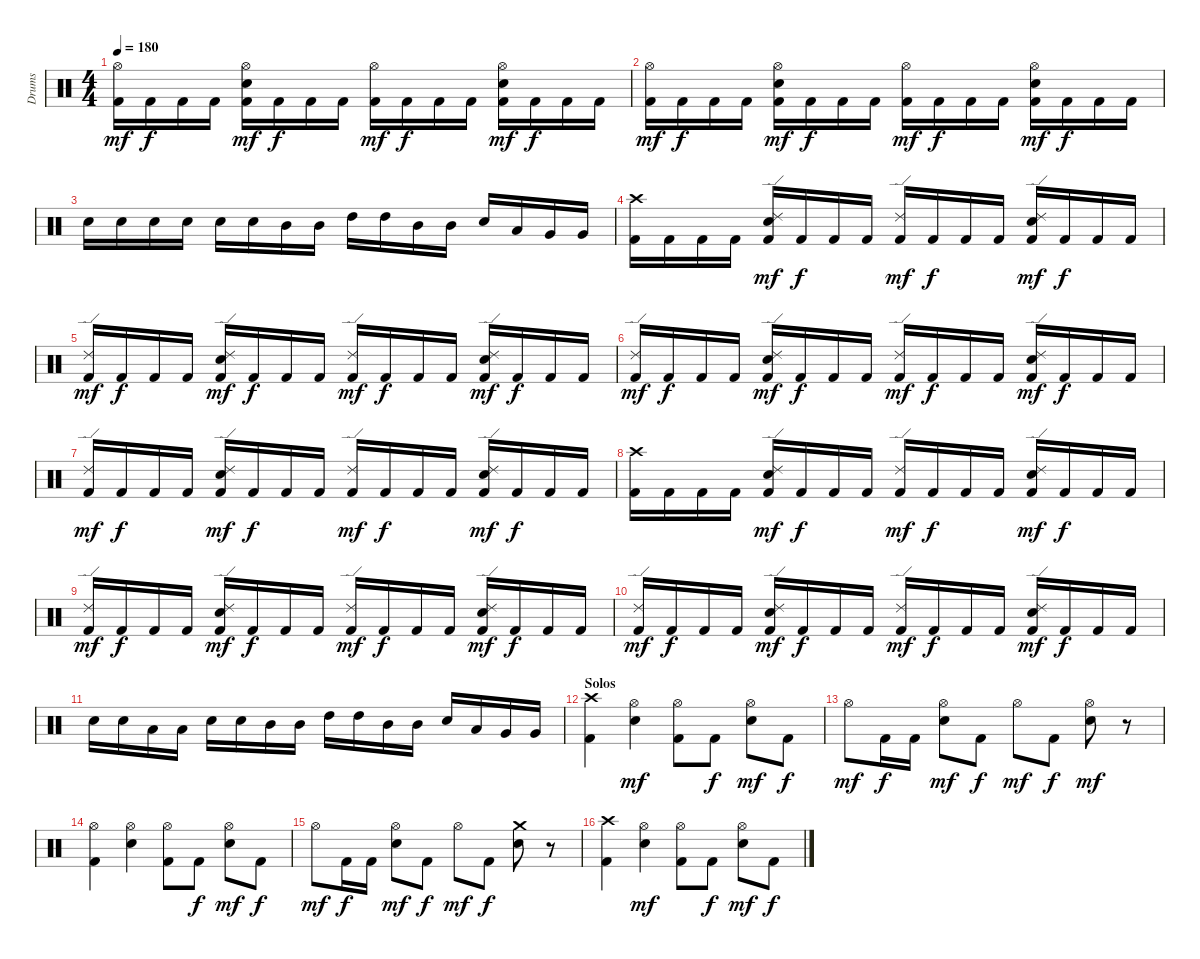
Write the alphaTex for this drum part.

\track ("Drums" "Drums") {instrument percussion}
\staff {score}
\articulation defaults
\ts (4 4)
\tempo 180
\clef neutral
\ks c
("Hi-Hat (open)" "Kick (hit) 2").16{dy mf} "Kick (hit) 2".16{dy f} "Kick (hit) 2".16 "Kick (hit) 2".16 ("Hi-Hat (open)" "Snare (hit) 2" "Kick (hit) 2").16{dy mf} "Kick (hit) 2".16{dy f} "Kick (hit) 2".16 "Kick (hit) 2".16 ("Hi-Hat (open)" "Kick (hit) 2").16{dy mf} "Kick (hit) 2".16{dy f} "Kick (hit) 2".16 "Kick (hit) 2".16 ("Hi-Hat (open)" "Snare (hit) 2" "Kick (hit) 2").16{dy mf} "Kick (hit) 2".16{dy f} "Kick (hit) 2".16 "Kick (hit) 2".16 |
("Hi-Hat (open)" "Kick (hit) 2").16{dy mf} "Kick (hit) 2".16{dy f} "Kick (hit) 2".16 "Kick (hit) 2".16 ("Hi-Hat (open)" "Snare (hit) 2" "Kick (hit) 2").16{dy mf} "Kick (hit) 2".16{dy f} "Kick (hit) 2".16 "Kick (hit) 2".16 ("Hi-Hat (open)" "Kick (hit) 2").16{dy mf} "Kick (hit) 2".16{dy f} "Kick (hit) 2".16 "Kick (hit) 2".16 ("Hi-Hat (open)" "Snare (hit) 2" "Kick (hit) 2").16{dy mf} "Kick (hit) 2".16{dy f} "Kick (hit) 2".16 "Kick (hit) 2".16 |
"Snare (hit) 2".16 "Snare (hit) 2".16 "Snare (hit) 2".16 "Snare (hit) 2".16 "Snare (hit) 2".16 "Snare (hit) 2".16 "Mid Tom (hit)".16 "Mid Tom (hit)".16 "High Tom (hit)".16 "High Tom (hit)".16 "Mid Tom (hit)".16 "Mid Tom (hit)".16 "Snare (hit) 2".16 "Low Tom (hit)".16 "Very Low Tom (hit)".16 "Very Low Tom (hit)".16 |
("Crash high (hit)" "Kick (hit) 2").16 "Kick (hit) 2".16 "Kick (hit) 2".16 "Kick (hit) 2".16 ("Ride (edge) 2" "Snare (hit) 2" "Kick (hit) 2").16{dy mf} "Kick (hit) 2".16{dy f} "Kick (hit) 2".16 "Kick (hit) 2".16 ("Ride (edge) 2" "Kick (hit) 2").16{dy mf} "Kick (hit) 2".16{dy f} "Kick (hit) 2".16 "Kick (hit) 2".16 ("Ride (edge) 2" "Snare (hit) 2" "Kick (hit) 2").16{dy mf} "Kick (hit) 2".16{dy f} "Kick (hit) 2".16 "Kick (hit) 2".16 |
("Ride (edge) 2" "Kick (hit) 2").16{dy mf} "Kick (hit) 2".16{dy f} "Kick (hit) 2".16 "Kick (hit) 2".16 ("Ride (edge) 2" "Snare (hit) 2" "Kick (hit) 2").16{dy mf} "Kick (hit) 2".16{dy f} "Kick (hit) 2".16 "Kick (hit) 2".16 ("Ride (edge) 2" "Kick (hit) 2").16{dy mf} "Kick (hit) 2".16{dy f} "Kick (hit) 2".16 "Kick (hit) 2".16 ("Ride (edge) 2" "Snare (hit) 2" "Kick (hit) 2").16{dy mf} "Kick (hit) 2".16{dy f} "Kick (hit) 2".16 "Kick (hit) 2".16 |
("Ride (edge) 2" "Kick (hit) 2").16{dy mf} "Kick (hit) 2".16{dy f} "Kick (hit) 2".16 "Kick (hit) 2".16 ("Ride (edge) 2" "Snare (hit) 2" "Kick (hit) 2").16{dy mf} "Kick (hit) 2".16{dy f} "Kick (hit) 2".16 "Kick (hit) 2".16 ("Ride (edge) 2" "Kick (hit) 2").16{dy mf} "Kick (hit) 2".16{dy f} "Kick (hit) 2".16 "Kick (hit) 2".16 ("Ride (edge) 2" "Snare (hit) 2" "Kick (hit) 2").16{dy mf} "Kick (hit) 2".16{dy f} "Kick (hit) 2".16 "Kick (hit) 2".16 |
("Ride (edge) 2" "Kick (hit) 2").16{dy mf} "Kick (hit) 2".16{dy f} "Kick (hit) 2".16 "Kick (hit) 2".16 ("Ride (edge) 2" "Snare (hit) 2" "Kick (hit) 2").16{dy mf} "Kick (hit) 2".16{dy f} "Kick (hit) 2".16 "Kick (hit) 2".16 ("Ride (edge) 2" "Kick (hit) 2").16{dy mf} "Kick (hit) 2".16{dy f} "Kick (hit) 2".16 "Kick (hit) 2".16 ("Ride (edge) 2" "Snare (hit) 2" "Kick (hit) 2").16{dy mf} "Kick (hit) 2".16{dy f} "Kick (hit) 2".16 "Kick (hit) 2".16 |
("Crash high (hit)" "Kick (hit) 2").16 "Kick (hit) 2".16 "Kick (hit) 2".16 "Kick (hit) 2".16 ("Ride (edge) 2" "Snare (hit) 2" "Kick (hit) 2").16{dy mf} "Kick (hit) 2".16{dy f} "Kick (hit) 2".16 "Kick (hit) 2".16 ("Ride (edge) 2" "Kick (hit) 2").16{dy mf} "Kick (hit) 2".16{dy f} "Kick (hit) 2".16 "Kick (hit) 2".16 ("Ride (edge) 2" "Snare (hit) 2" "Kick (hit) 2").16{dy mf} "Kick (hit) 2".16{dy f} "Kick (hit) 2".16 "Kick (hit) 2".16 |
("Ride (edge) 2" "Kick (hit) 2").16{dy mf} "Kick (hit) 2".16{dy f} "Kick (hit) 2".16 "Kick (hit) 2".16 ("Ride (edge) 2" "Snare (hit) 2" "Kick (hit) 2").16{dy mf} "Kick (hit) 2".16{dy f} "Kick (hit) 2".16 "Kick (hit) 2".16 ("Ride (edge) 2" "Kick (hit) 2").16{dy mf} "Kick (hit) 2".16{dy f} "Kick (hit) 2".16 "Kick (hit) 2".16 ("Ride (edge) 2" "Snare (hit) 2" "Kick (hit) 2").16{dy mf} "Kick (hit) 2".16{dy f} "Kick (hit) 2".16 "Kick (hit) 2".16 |
("Ride (edge) 2" "Kick (hit) 2").16{dy mf} "Kick (hit) 2".16{dy f} "Kick (hit) 2".16 "Kick (hit) 2".16 ("Ride (edge) 2" "Snare (hit) 2" "Kick (hit) 2").16{dy mf} "Kick (hit) 2".16{dy f} "Kick (hit) 2".16 "Kick (hit) 2".16 ("Ride (edge) 2" "Kick (hit) 2").16{dy mf} "Kick (hit) 2".16{dy f} "Kick (hit) 2".16 "Kick (hit) 2".16 ("Ride (edge) 2" "Snare (hit) 2" "Kick (hit) 2").16{dy mf} "Kick (hit) 2".16{dy f} "Kick (hit) 2".16 "Kick (hit) 2".16 |
"Snare (hit) 2".16 "Snare (hit) 2".16 "Low Tom (hit)".16 "Low Tom (hit)".16 "Snare (hit) 2".16 "Snare (hit) 2".16 "Mid Tom (hit)".16 "Mid Tom (hit)".16 "High Tom (hit)".16 "High Tom (hit)".16 "Mid Tom (hit)".16 "Mid Tom (hit)".16 "Snare (hit) 2".16 "Low Tom (hit)".16 "Very Low Tom (hit)".16 "Very Low Tom (hit)".16 |
\section ("" "Solos")
("Crash high (hit)" "Kick (hit) 2").4 ("Hi-Hat (open)" "Snare (hit) 2").4{dy mf} ("Hi-Hat (open)" "Kick (hit) 2").8 "Kick (hit) 2".8{dy f} ("Hi-Hat (open)" "Snare (hit) 2").8{dy mf} "Kick (hit) 2".8{dy f} |
"Hi-Hat (open)".8{dy mf} "Kick (hit) 2".16{dy f} "Kick (hit) 2".16 ("Hi-Hat (open)" "Snare (hit) 2").8{dy mf} "Kick (hit) 2".8{dy f} "Hi-Hat (open)".8{dy mf} "Kick (hit) 2".8{dy f} ("Hi-Hat (open)" "Snare (hit) 2").8{dy mf} r.8 |
("Hi-Hat (open)" "Kick (hit) 2").4 ("Hi-Hat (open)" "Snare (hit) 2").4 ("Hi-Hat (open)" "Kick (hit) 2").8 "Kick (hit) 2".8{dy f} ("Hi-Hat (open)" "Snare (hit) 2").8{dy mf} "Kick (hit) 2".8{dy f} |
"Hi-Hat (open)".8{dy mf} "Kick (hit) 2".16{dy f} "Kick (hit) 2".16 ("Hi-Hat (open)" "Snare (hit) 2").8{dy mf} "Kick (hit) 2".8{dy f} "Hi-Hat (open)".8{dy mf} "Kick (hit) 2".8{dy f} ("Crash medium (hit)" "Snare (hit) 2").8 r.8 |
("Crash high (hit)" "Kick (hit) 2").4 ("Hi-Hat (open)" "Snare (hit) 2").4{dy mf} ("Hi-Hat (open)" "Kick (hit) 2").8 "Kick (hit) 2".8{dy f} ("Hi-Hat (open)" "Snare (hit) 2").8{dy mf} "Kick (hit) 2".8{dy f}
